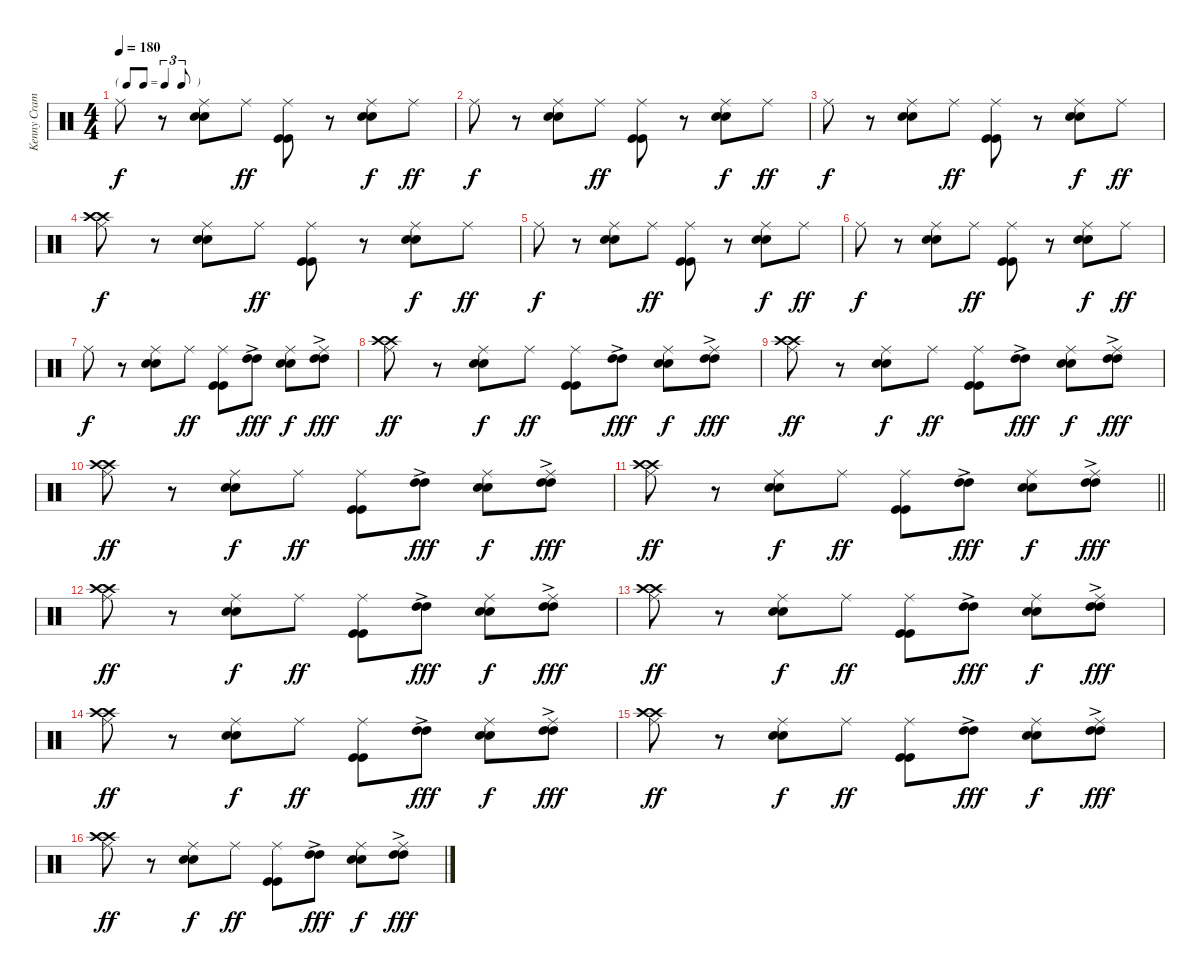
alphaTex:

\track ("Kenny Cramme" "Kenny Cram") {instrument percussion}
\staff {score}
\articulation defaults
\ts (4 4)
\tf triplet8th
\tempo 180
\clef neutral
\ks c "Ride (middle)".8{dy f}
r.8 ("Ride (middle)" "Snare (hit) 2" "Snare (hit) 2").8 "Ride (middle)".8{dy ff} ("Ride (middle)" "Kick (hit)" "Kick (hit)").8 r.8 ("Ride (middle)" "Snare (hit) 2" "Snare (hit) 2").8{dy f} "Ride (middle)".8{dy ff} |
"Ride (middle)".8{dy f} r.8 ("Ride (middle)" "Snare (hit) 2" "Snare (hit) 2").8 "Ride (middle)".8{dy ff} ("Ride (middle)" "Kick (hit)" "Kick (hit)").8 r.8 ("Ride (middle)" "Snare (hit) 2" "Snare (hit) 2").8{dy f} "Ride (middle)".8{dy ff} |
"Ride (middle)".8{dy f} r.8 ("Ride (middle)" "Snare (hit) 2" "Snare (hit) 2").8 "Ride (middle)".8{dy ff} ("Ride (middle)" "Kick (hit)" "Kick (hit)").8 r.8 ("Ride (middle)" "Snare (hit) 2" "Snare (hit) 2").8{dy f} "Ride (middle)".8{dy ff} |
("Ride (middle)" "Crash high (hit)" "Crash high (hit)").8{dy f} r.8 ("Ride (middle)" "Snare (hit) 2" "Snare (hit) 2").8 "Ride (middle)".8{dy ff} ("Ride (middle)" "Kick (hit)" "Kick (hit)").8 r.8 ("Ride (middle)" "Snare (hit) 2" "Snare (hit) 2").8{dy f} "Ride (middle)".8{dy ff} |
"Ride (middle)".8{dy f} r.8 ("Ride (middle)" "Snare (hit) 2" "Snare (hit) 2").8 "Ride (middle)".8{dy ff} ("Ride (middle)" "Kick (hit)" "Kick (hit)").8 r.8 ("Ride (middle)" "Snare (hit) 2" "Snare (hit) 2").8{dy f} "Ride (middle)".8{dy ff} |
"Ride (middle)".8{dy f} r.8 ("Ride (middle)" "Snare (hit) 2" "Snare (hit) 2").8 "Ride (middle)".8{dy ff} ("Ride (middle)" "Kick (hit)" "Kick (hit)").8 r.8 ("Ride (middle)" "Snare (hit) 2" "Snare (hit) 2").8{dy f} "Ride (middle)".8{dy ff} |
"Ride (middle)".8{dy f} r.8 ("Ride (middle)" "Snare (hit) 2" "Snare (hit) 2").8 "Ride (middle)".8{dy ff} ("Ride (middle)" "Kick (hit)" "Kick (hit)").8 ("High Tom (hit)"{ac} "High Tom (hit)"{ac}).8{dy fff} ("Ride (middle)" "Snare (hit) 2" "Snare (hit) 2").8{dy f} ("Ride (middle)" "High Tom (hit)"{ac} "High Tom (hit)"{ac}).8{dy fff} |
("Ride (middle)" "Crash high (hit)" "Crash high (hit)").8{dy ff} r.8 ("Ride (middle)" "Snare (hit) 2" "Snare (hit) 2").8{dy f} "Ride (middle)".8{dy ff} ("Ride (middle)" "Kick (hit)" "Kick (hit)").8 ("High Tom (hit)"{ac} "High Tom (hit)"{ac}).8{dy fff} ("Ride (middle)" "Snare (hit) 2" "Snare (hit) 2").8{dy f} ("Ride (middle)" "High Tom (hit)"{ac} "High Tom (hit)"{ac}).8{dy fff} |
("Ride (middle)" "Crash high (hit)" "Crash high (hit)").8{dy ff} r.8 ("Ride (middle)" "Snare (hit) 2" "Snare (hit) 2").8{dy f} "Ride (middle)".8{dy ff} ("Ride (middle)" "Kick (hit)" "Kick (hit)").8 ("High Tom (hit)"{ac} "High Tom (hit)"{ac}).8{dy fff} ("Ride (middle)" "Snare (hit) 2" "Snare (hit) 2").8{dy f} ("Ride (middle)" "High Tom (hit)"{ac} "High Tom (hit)"{ac}).8{dy fff} |
("Ride (middle)" "Crash high (hit)" "Crash high (hit)").8{dy ff} r.8 ("Ride (middle)" "Snare (hit) 2" "Snare (hit) 2").8{dy f} "Ride (middle)".8{dy ff} ("Ride (middle)" "Kick (hit)" "Kick (hit)").8 ("High Tom (hit)"{ac} "High Tom (hit)"{ac}).8{dy fff} ("Ride (middle)" "Snare (hit) 2" "Snare (hit) 2").8{dy f} ("Ride (middle)" "High Tom (hit)"{ac} "High Tom (hit)"{ac}).8{dy fff} |
\barLineRight lightlight
("Ride (middle)" "Crash high (hit)" "Crash high (hit)").8{dy ff} r.8 ("Ride (middle)" "Snare (hit) 2" "Snare (hit) 2").8{dy f} "Ride (middle)".8{dy ff} ("Ride (middle)" "Kick (hit)" "Kick (hit)").8 ("High Tom (hit)"{ac} "High Tom (hit)"{ac}).8{dy fff} ("Ride (middle)" "Snare (hit) 2" "Snare (hit) 2").8{dy f} ("Ride (middle)" "High Tom (hit)"{ac} "High Tom (hit)"{ac}).8{dy fff} |
("Ride (middle)" "Crash high (hit)" "Crash high (hit)").8{dy ff} r.8 ("Ride (middle)" "Snare (hit) 2" "Snare (hit) 2").8{dy f} "Ride (middle)".8{dy ff} ("Ride (middle)" "Kick (hit)" "Kick (hit)").8 ("High Tom (hit)"{ac} "High Tom (hit)"{ac}).8{dy fff} ("Ride (middle)" "Snare (hit) 2" "Snare (hit) 2").8{dy f} ("Ride (middle)" "High Tom (hit)"{ac} "High Tom (hit)"{ac}).8{dy fff} |
("Ride (middle)" "Crash high (hit)" "Crash high (hit)").8{dy ff} r.8 ("Ride (middle)" "Snare (hit) 2" "Snare (hit) 2").8{dy f} "Ride (middle)".8{dy ff} ("Ride (middle)" "Kick (hit)" "Kick (hit)").8 ("High Tom (hit)"{ac} "High Tom (hit)"{ac}).8{dy fff} ("Ride (middle)" "Snare (hit) 2" "Snare (hit) 2").8{dy f} ("Ride (middle)" "High Tom (hit)"{ac} "High Tom (hit)"{ac}).8{dy fff} |
("Ride (middle)" "Crash high (hit)" "Crash high (hit)").8{dy ff} r.8 ("Ride (middle)" "Snare (hit) 2" "Snare (hit) 2").8{dy f} "Ride (middle)".8{dy ff} ("Ride (middle)" "Kick (hit)" "Kick (hit)").8 ("High Tom (hit)"{ac} "High Tom (hit)"{ac}).8{dy fff} ("Ride (middle)" "Snare (hit) 2" "Snare (hit) 2").8{dy f} ("Ride (middle)" "High Tom (hit)"{ac} "High Tom (hit)"{ac}).8{dy fff} |
("Ride (middle)" "Crash high (hit)" "Crash high (hit)").8{dy ff} r.8 ("Ride (middle)" "Snare (hit) 2" "Snare (hit) 2").8{dy f} "Ride (middle)".8{dy ff} ("Ride (middle)" "Kick (hit)" "Kick (hit)").8 ("High Tom (hit)"{ac} "High Tom (hit)"{ac}).8{dy fff} ("Ride (middle)" "Snare (hit) 2" "Snare (hit) 2").8{dy f} ("Ride (middle)" "High Tom (hit)"{ac} "High Tom (hit)"{ac}).8{dy fff} |
("Ride (middle)" "Crash high (hit)" "Crash high (hit)").8{dy ff} r.8 ("Ride (middle)" "Snare (hit) 2" "Snare (hit) 2").8{dy f} "Ride (middle)".8{dy ff} ("Ride (middle)" "Kick (hit)" "Kick (hit)").8 ("High Tom (hit)"{ac} "High Tom (hit)"{ac}).8{dy fff} ("Ride (middle)" "Snare (hit) 2" "Snare (hit) 2").8{dy f} ("Ride (middle)" "High Tom (hit)"{ac} "High Tom (hit)"{ac}).8{dy fff}
